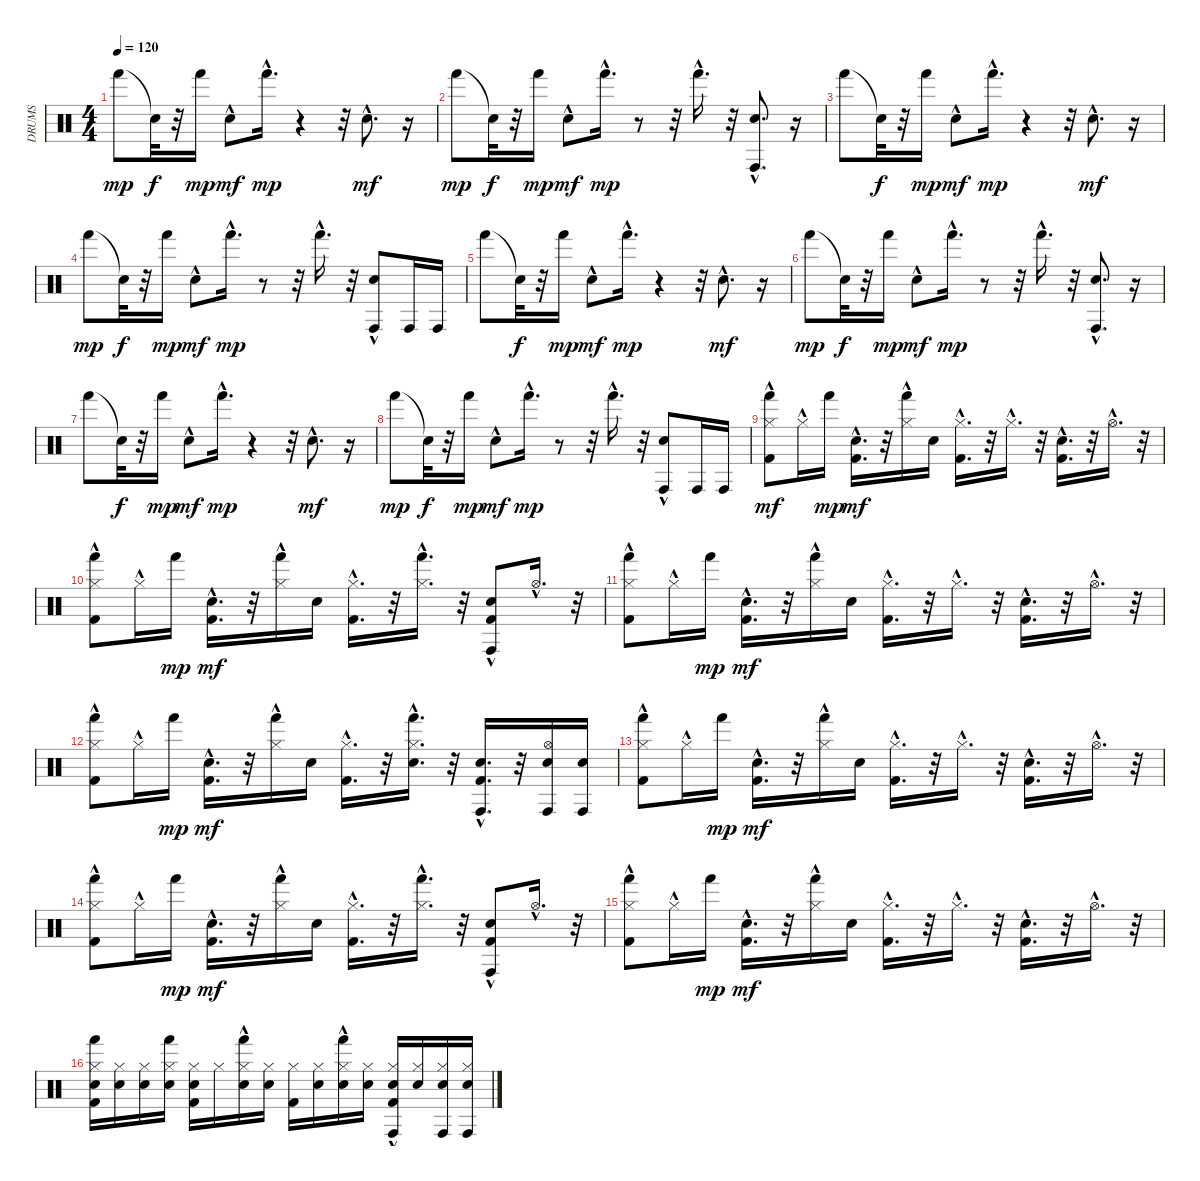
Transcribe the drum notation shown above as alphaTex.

\track ("DRUMS" "DRUMS") {instrument percussion}
\staff {score}
\articulation defaults
\ts (4 4)
\tempo 120
\clef neutral
\ks c "Hand (hit)".8{dy mp} "Snare (hit)"{t}.32{dy f}
r.32 "Hand (hit)".16{dy mp} "Hand Clap (hit)"{hac}.8{dy mf} "Hand (hit)"{hac}.16{d dy mp} r.4 r.32 "Hand Clap (hit)"{hac}.8{d dy mf} r.16 |
"Hand (hit)".8{dy mp} "Snare (hit)"{t}.32{dy f} r.32 "Hand (hit)".16{dy mp} "Hand Clap (hit)"{hac}.8{dy mf} "Hand (hit)"{hac}.16{d dy mp} r.8 r.32 "Hand (hit)"{hac}.16{d} r.32 ("Hand Clap (hit)"{hac} "Conga high (hit)"{hac}).8{d} r.16 |
"Hand (hit)".8 "Snare (hit)"{t}.32{dy f} r.32 "Hand (hit)".16{dy mp} "Hand Clap (hit)"{hac}.8{dy mf} "Hand (hit)"{hac}.16{d dy mp} r.4 r.32 "Hand Clap (hit)"{hac}.8{d dy mf} r.16 |
"Hand (hit)".8{dy mp} "Snare (hit)"{t}.32{dy f} r.32 "Hand (hit)".16{dy mp} "Hand Clap (hit)"{hac}.8{dy mf} "Hand (hit)"{hac}.16{d dy mp} r.8 r.32 "Hand (hit)"{hac}.16{d} r.32 ("Hand Clap (hit)"{hac} "Conga high (hit)"{hac}).8 "Conga high (hit)".16 "Conga high (hit)".16 |
"Hand (hit)".8 "Snare (hit)"{t}.32{dy f} r.32 "Hand (hit)".16{dy mp} "Hand Clap (hit)"{hac}.8{dy mf} "Hand (hit)"{hac}.16{d dy mp} r.4 r.32 "Hand Clap (hit)"{hac}.8{d dy mf} r.16 |
"Hand (hit)".8{dy mp} "Snare (hit)"{t}.32{dy f} r.32 "Hand (hit)".16{dy mp} "Hand Clap (hit)"{hac}.8{dy mf} "Hand (hit)"{hac}.16{d dy mp} r.8 r.32 "Hand (hit)"{hac}.16{d} r.32 ("Hand Clap (hit)"{hac} "Conga high (hit)"{hac}).8{d} r.16 |
"Hand (hit)".8 "Snare (hit)"{t}.32{dy f} r.32 "Hand (hit)".16{dy mp} "Hand Clap (hit)"{hac}.8{dy mf} "Hand (hit)"{hac}.16{d dy mp} r.4 r.32 "Hand Clap (hit)"{hac}.8{d dy mf} r.16 |
"Hand (hit)".8{dy mp} "Snare (hit)"{t}.32{dy f} r.32 "Hand (hit)".16{dy mp} "Hand Clap (hit)"{hac}.8{dy mf} "Hand (hit)"{hac}.16{d dy mp} r.8 r.32 "Hand (hit)"{hac}.16{d} r.32 ("Hand Clap (hit)"{hac} "Conga high (hit)"{hac}).8 "Conga high (hit)".16 "Conga high (hit)".16 |
("Hand (hit)" "Hi-Hat (closed)"{hac} "Kick (hit) 2"{hac}).8{dy mf} "Hi-Hat (closed)"{hac}.16 "Hand (hit)".16{dy mp} ("Electric Snare (hit)"{hac} "Kick (hit) 2"{hac}).16{d dy mf} r.32 ("Hand (hit)"{hac} "Hi-Hat (closed)").16 "Electric Snare (hit)".16 ("Hi-Hat (closed)"{hac} "Kick (hit) 2"{hac}).16{d} r.32 "Hi-Hat (closed)"{hac}.16{d} r.32 ("Electric Snare (hit)"{hac} "Kick (hit) 2"{hac}).16{d} r.32 "Hi-Hat (open)"{hac}.16{d} r.32 |
("Hand (hit)" "Kick (hit) 2"{hac} "Hi-Hat (closed)"{hac}).8 "Hi-Hat (closed)"{hac}.16 "Hand (hit)".16{dy mp} ("Kick (hit) 2"{hac} "Electric Snare (hit)"{hac}).16{d dy mf} r.32 ("Hand (hit)"{hac} "Hi-Hat (closed)").16 "Electric Snare (hit)".16 ("Kick (hit) 2"{hac} "Hi-Hat (closed)"{hac}).16{d} r.32 ("Hand (hit)"{hac} "Hi-Hat (closed)"{hac}).16{d} r.32 ("Conga high (hit)"{hac} "Kick (hit) 2"{hac} "Electric Snare (hit)"{hac}).8 "Hi-Hat (open)"{hac}.16{d} r.32 |
("Hand (hit)" "Kick (hit) 2"{hac} "Hi-Hat (closed)"{hac}).8 "Hi-Hat (closed)"{hac}.16 "Hand (hit)".16{dy mp} ("Kick (hit) 2"{hac} "Electric Snare (hit)"{hac}).16{d dy mf} r.32 ("Hand (hit)"{hac} "Hi-Hat (closed)").16 "Electric Snare (hit)".16 ("Kick (hit) 2"{hac} "Hi-Hat (closed)"{hac}).16{d} r.32 "Hi-Hat (closed)"{hac}.16{d} r.32 ("Kick (hit) 2"{hac} "Electric Snare (hit)"{hac}).16{d} r.32 "Hi-Hat (open)"{hac}.16{d} r.32 |
("Hand (hit)" "Kick (hit) 2"{hac} "Hi-Hat (closed)"{hac}).8 "Hi-Hat (closed)"{hac}.16 "Hand (hit)".16{dy mp} ("Kick (hit) 2"{hac} "Electric Snare (hit)"{hac}).16{d dy mf} r.32 ("Hand (hit)"{hac} "Hi-Hat (closed)").16 "Electric Snare (hit)".16 ("Kick (hit) 2"{hac} "Hi-Hat (closed)"{hac}).16{d} r.32 ("Hand (hit)"{hac} "Electric Snare (hit)"{hac} "Hi-Hat (closed)"{hac}).16{d} r.32 ("Conga high (hit)"{hac} "Kick (hit) 2"{hac} "Electric Snare (hit)"{hac}).16{d} r.32 ("Conga high (hit)" "Electric Snare (hit)" "Hi-Hat (open)").16 ("Conga high (hit)" "Electric Snare (hit)").16 |
("Hand (hit)" "Kick (hit) 2"{hac} "Hi-Hat (closed)"{hac}).8 "Hi-Hat (closed)"{hac}.16 "Hand (hit)".16{dy mp} ("Kick (hit) 2"{hac} "Electric Snare (hit)"{hac}).16{d dy mf} r.32 ("Hand (hit)"{hac} "Hi-Hat (closed)").16 "Electric Snare (hit)".16 ("Kick (hit) 2"{hac} "Hi-Hat (closed)"{hac}).16{d} r.32 "Hi-Hat (closed)"{hac}.16{d} r.32 ("Kick (hit) 2"{hac} "Electric Snare (hit)"{hac}).16{d} r.32 "Hi-Hat (open)"{hac}.16{d} r.32 |
("Hand (hit)" "Hi-Hat (closed)"{hac} "Kick (hit) 2"{hac}).8 "Hi-Hat (closed)"{hac}.16 "Hand (hit)".16{dy mp} ("Electric Snare (hit)"{hac} "Kick (hit) 2"{hac}).16{d dy mf} r.32 ("Hand (hit)"{hac} "Hi-Hat (closed)").16 "Electric Snare (hit)".16 ("Hi-Hat (closed)"{hac} "Kick (hit) 2"{hac}).16{d} r.32 ("Hand (hit)"{hac} "Hi-Hat (closed)"{hac}).16{d} r.32 ("Conga high (hit)"{hac} "Electric Snare (hit)"{hac} "Kick (hit) 2"{hac}).8 "Hi-Hat (open)"{hac}.16{d} r.32 |
("Hand (hit)" "Hi-Hat (closed)"{hac} "Kick (hit) 2"{hac}).8 "Hi-Hat (closed)"{hac}.16 "Hand (hit)".16{dy mp} ("Electric Snare (hit)"{hac} "Kick (hit) 2"{hac}).16{d dy mf} r.32 ("Hand (hit)"{hac} "Hi-Hat (closed)").16 "Electric Snare (hit)".16 ("Hi-Hat (closed)"{hac} "Kick (hit) 2"{hac}).16{d} r.32 "Hi-Hat (closed)"{hac}.16{d} r.32 ("Electric Snare (hit)"{hac} "Kick (hit) 2"{hac}).16{d} r.32 "Hi-Hat (open)"{hac}.16{d} r.32 |
("Hand (hit)" "Hi-Hat (closed)" "Kick (hit) 2" "Electric Snare (hit)").16 ("Hi-Hat (closed)" "Electric Snare (hit)").16 ("Hi-Hat (closed)" "Electric Snare (hit)").16 ("Hand (hit)" "Hi-Hat (closed)" "Electric Snare (hit)").16 ("Electric Snare (hit)" "Kick (hit) 2" "Hi-Hat (closed)").16 "Hi-Hat (closed)".16 ("Hand (hit)"{hac} "Hi-Hat (closed)" "Electric Snare (hit)").16 ("Electric Snare (hit)" "Hi-Hat (closed)").16 ("Kick (hit) 2" "Hi-Hat (closed)").16 ("Electric Snare (hit)" "Hi-Hat (closed)").16 ("Hand (hit)"{hac} "Hi-Hat (closed)" "Electric Snare (hit)").16 ("Electric Snare (hit)" "Hi-Hat (closed)").16 ("Conga high (hit)"{hac} "Kick (hit) 2" "Hi-Hat (closed)" "Electric Snare (hit)").16 ("Electric Snare (hit)" "Hi-Hat (closed)").16 ("Conga high (hit)" "Hi-Hat (closed)" "Electric Snare (hit)").16 ("Conga high (hit)" "Hi-Hat (closed)" "Electric Snare (hit)").16
